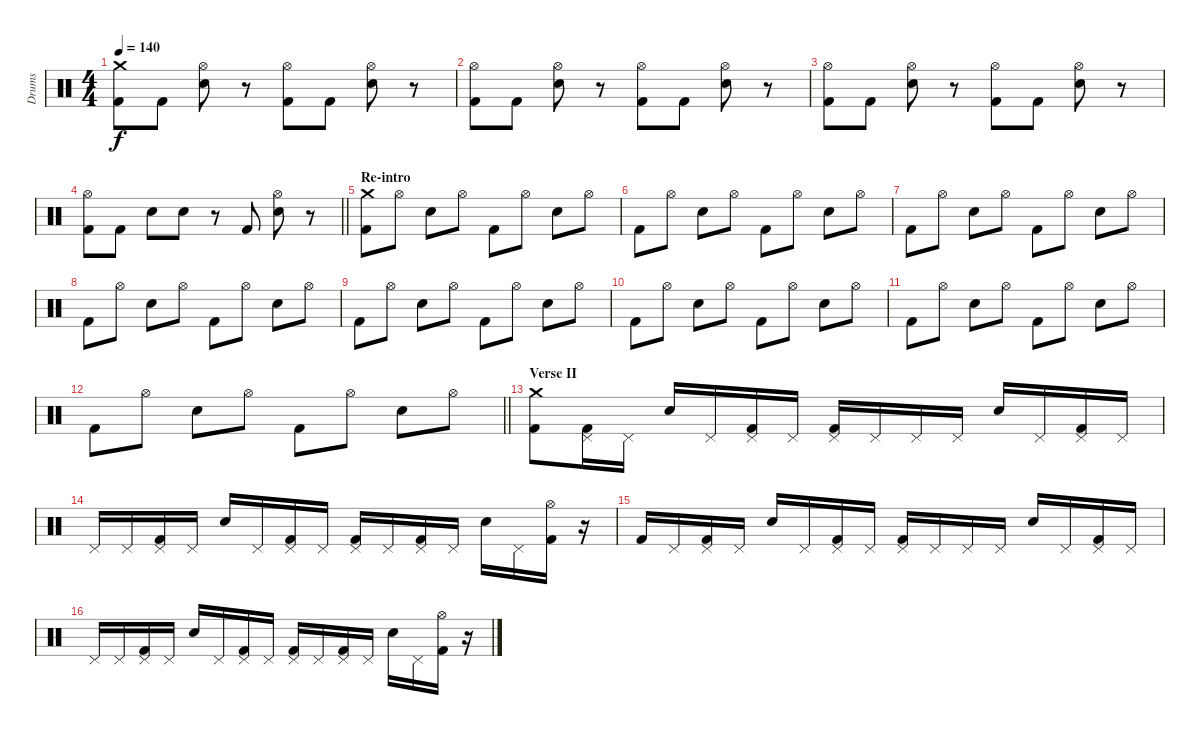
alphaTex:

\track ("Drums" "Drums") {instrument percussion}
\staff {score}
\articulation defaults
\ts (4 4)
\tempo 140
\clef neutral
\ks c
("Crash medium (hit)" "Kick (hit) 2").8{dy f} "Kick (hit) 2".8 ("Hi-Hat (open)" "Electric Snare (hit)").8 r.8 ("Hi-Hat (open)" "Kick (hit) 2").8 "Kick (hit) 2".8 ("Hi-Hat (open)" "Electric Snare (hit)").8 r.8 |
("Hi-Hat (open)" "Kick (hit) 2").8 "Kick (hit) 2".8 ("Hi-Hat (open)" "Electric Snare (hit)").8 r.8 ("Hi-Hat (open)" "Kick (hit) 2").8 "Kick (hit) 2".8 ("Hi-Hat (open)" "Electric Snare (hit)").8 r.8 |
("Hi-Hat (open)" "Kick (hit) 2").8 "Kick (hit) 2".8 ("Hi-Hat (open)" "Electric Snare (hit)").8 r.8 ("Hi-Hat (open)" "Kick (hit) 2").8 "Kick (hit) 2".8 ("Hi-Hat (open)" "Electric Snare (hit)").8 r.8 |
\barLineRight lightlight
("Hi-Hat (open)" "Kick (hit) 2").8 "Kick (hit) 2".8 "Electric Snare (hit)".8 "Electric Snare (hit)".8 r.8 "Kick (hit) 2".8 ("Hi-Hat (open)" "Electric Snare (hit)").8 r.8 |
\section ("" "Re-intro")
("Crash medium (hit)" "Kick (hit) 2").8 "Hi-Hat (open)".8 "Electric Snare (hit)".8 "Hi-Hat (open)".8 "Kick (hit) 2".8 "Hi-Hat (open)".8 "Electric Snare (hit)".8 "Hi-Hat (open)".8 |
"Kick (hit) 2".8 "Hi-Hat (open)".8 "Electric Snare (hit)".8 "Hi-Hat (open)".8 "Kick (hit) 2".8 "Hi-Hat (open)".8 "Electric Snare (hit)".8 "Hi-Hat (open)".8 |
"Kick (hit) 2".8 "Hi-Hat (open)".8 "Electric Snare (hit)".8 "Hi-Hat (open)".8 "Kick (hit) 2".8 "Hi-Hat (open)".8 "Electric Snare (hit)".8 "Hi-Hat (open)".8 |
"Kick (hit) 2".8 "Hi-Hat (open)".8 "Electric Snare (hit)".8 "Hi-Hat (open)".8 "Kick (hit) 2".8 "Hi-Hat (open)".8 "Electric Snare (hit)".8 "Hi-Hat (open)".8 |
"Kick (hit) 2".8 "Hi-Hat (open)".8 "Electric Snare (hit)".8 "Hi-Hat (open)".8 "Kick (hit) 2".8 "Hi-Hat (open)".8 "Electric Snare (hit)".8 "Hi-Hat (open)".8 |
"Kick (hit) 2".8 "Hi-Hat (open)".8 "Electric Snare (hit)".8 "Hi-Hat (open)".8 "Kick (hit) 2".8 "Hi-Hat (open)".8 "Electric Snare (hit)".8 "Hi-Hat (open)".8 |
"Kick (hit) 2".8 "Hi-Hat (open)".8 "Electric Snare (hit)".8 "Hi-Hat (open)".8 "Kick (hit) 2".8 "Hi-Hat (open)".8 "Electric Snare (hit)".8 "Hi-Hat (open)".8 |
\barLineRight lightlight "Kick (hit) 2".8 "Hi-Hat (open)".8 "Electric Snare (hit)".8 "Hi-Hat (open)".8 "Kick (hit) 2".8 "Hi-Hat (open)".8 "Electric Snare (hit)".8 "Hi-Hat (open)".8
|
\section ("" "Verse II")
("Crash medium (hit)" "Kick (hit) 2").8 ("Pedal Hi-Hat (hit)" "Kick (hit) 2").16 "Pedal Hi-Hat (hit)".16 "Electric Snare (hit)".16 "Pedal Hi-Hat (hit)".16 ("Pedal Hi-Hat (hit)" "Kick (hit) 2").16 "Pedal Hi-Hat (hit)".16 ("Pedal Hi-Hat (hit)" "Kick (hit) 2").16 "Pedal Hi-Hat (hit)".16 "Pedal Hi-Hat (hit)".16 "Pedal Hi-Hat (hit)".16 "Electric Snare (hit)".16 "Pedal Hi-Hat (hit)".16 ("Pedal Hi-Hat (hit)" "Kick (hit) 2").16 "Pedal Hi-Hat (hit)".16 |
"Pedal Hi-Hat (hit)".16 "Pedal Hi-Hat (hit)".16 ("Pedal Hi-Hat (hit)" "Kick (hit) 2").16 "Pedal Hi-Hat (hit)".16 "Electric Snare (hit)".16 "Pedal Hi-Hat (hit)".16 ("Pedal Hi-Hat (hit)" "Kick (hit) 2").16 "Pedal Hi-Hat (hit)".16 ("Pedal Hi-Hat (hit)" "Kick (hit) 2").16 "Pedal Hi-Hat (hit)".16 ("Pedal Hi-Hat (hit)" "Kick (hit) 2").16 "Pedal Hi-Hat (hit)".16 "Electric Snare (hit)".16 "Pedal Hi-Hat (hit)".16 ("Hi-Hat (open)" "Kick (hit) 2").16 r.16 |
"Kick (hit) 2".16 "Pedal Hi-Hat (hit)".16 ("Pedal Hi-Hat (hit)" "Kick (hit) 2").16 "Pedal Hi-Hat (hit)".16 "Electric Snare (hit)".16 "Pedal Hi-Hat (hit)".16 ("Pedal Hi-Hat (hit)" "Kick (hit) 2").16 "Pedal Hi-Hat (hit)".16 ("Pedal Hi-Hat (hit)" "Kick (hit) 2").16 "Pedal Hi-Hat (hit)".16 "Pedal Hi-Hat (hit)".16 "Pedal Hi-Hat (hit)".16 "Electric Snare (hit)".16 "Pedal Hi-Hat (hit)".16 ("Pedal Hi-Hat (hit)" "Kick (hit) 2").16 "Pedal Hi-Hat (hit)".16 |
"Pedal Hi-Hat (hit)".16 "Pedal Hi-Hat (hit)".16 ("Pedal Hi-Hat (hit)" "Kick (hit) 2").16 "Pedal Hi-Hat (hit)".16 "Electric Snare (hit)".16 "Pedal Hi-Hat (hit)".16 ("Pedal Hi-Hat (hit)" "Kick (hit) 2").16 "Pedal Hi-Hat (hit)".16 ("Pedal Hi-Hat (hit)" "Kick (hit) 2").16 "Pedal Hi-Hat (hit)".16 ("Pedal Hi-Hat (hit)" "Kick (hit) 2").16 "Pedal Hi-Hat (hit)".16 "Electric Snare (hit)".16 "Pedal Hi-Hat (hit)".16 ("Hi-Hat (open)" "Kick (hit) 2").16 r.16
